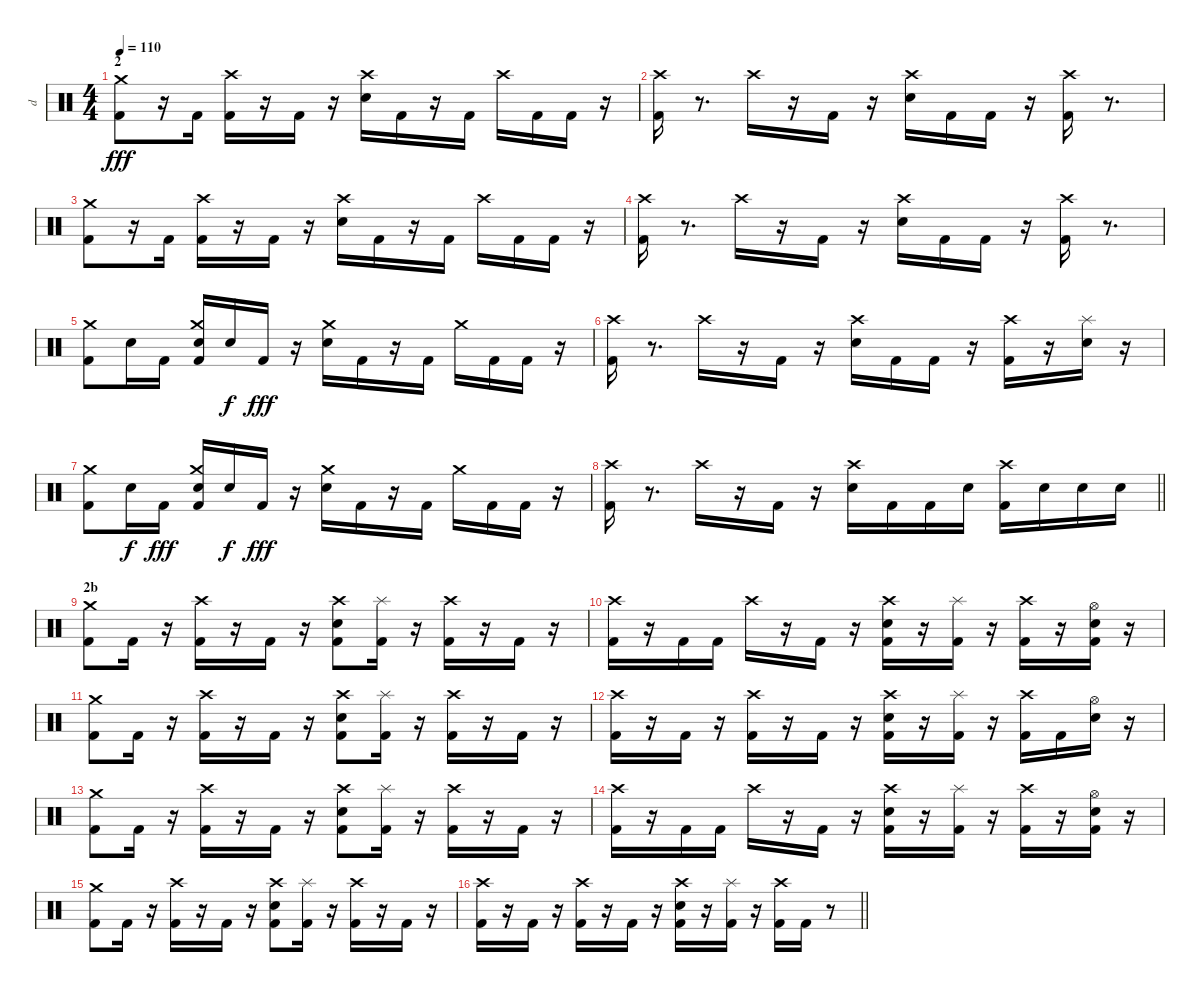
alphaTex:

\track ("d" "d") {instrument percussion}
\staff {score}
\articulation defaults
\ts (4 4)
\section ("" "2")
\tempo 110
\clef neutral
\ks c
("Kick (hit) 2" "Crash medium (hit)").8{dy fff} r.16 "Kick (hit) 2".16 ("Kick (hit) 2" "Crash high (hit)").16 r.16 "Kick (hit) 2".16 r.16 ("Electric Snare (hit)" "Crash high (hit)").16 "Kick (hit) 2".16 r.16 "Kick (hit) 2".16 "Crash high (hit)".16 "Kick (hit) 2".16 "Kick (hit) 2".16 r.16 |
("Kick (hit) 2" "Crash high (hit)").16 r.8{d} "Crash high (hit)".16 r.16 "Kick (hit) 2".16 r.16 ("Electric Snare (hit)" "Crash high (hit)").16 "Kick (hit) 2".16 "Kick (hit) 2".16 r.16 ("Kick (hit) 2" "Crash high (hit)").16 r.8{d} |
("Kick (hit) 2" "Crash medium (hit)").8 r.16 "Kick (hit) 2".16 ("Kick (hit) 2" "Crash high (hit)").16 r.16 "Kick (hit) 2".16 r.16 ("Electric Snare (hit)" "Crash high (hit)").16 "Kick (hit) 2".16 r.16 "Kick (hit) 2".16 "Crash high (hit)".16 "Kick (hit) 2".16 "Kick (hit) 2".16 r.16 |
("Kick (hit) 2" "Crash high (hit)").16 r.8{d} "Crash high (hit)".16 r.16 "Kick (hit) 2".16 r.16 ("Electric Snare (hit)" "Crash high (hit)").16 "Kick (hit) 2".16 "Kick (hit) 2".16 r.16 ("Kick (hit) 2" "Crash high (hit)").16 r.8{d} |
("Kick (hit) 2" "Crash medium (hit)").8 "Electric Snare (hit)".16 "Kick (hit) 2".16 ("Crash medium (hit)" "Kick (hit) 2" "Electric Snare (hit)").16 "Electric Snare (hit)".16{dy f} "Kick (hit) 2".16{dy fff} r.16 ("Electric Snare (hit)" "Crash medium (hit)").16 "Kick (hit) 2".16 r.16 "Kick (hit) 2".16 "Crash medium (hit)".16 "Kick (hit) 2".16 "Kick (hit) 2".16 r.16 |
("Crash high (hit)" "Kick (hit) 2").16 r.8{d} "Crash high (hit)".16 r.16 "Kick (hit) 2".16 r.16 ("Electric Snare (hit)" "Crash high (hit)").16 "Kick (hit) 2".16 "Kick (hit) 2".16 r.16 ("Kick (hit) 2" "Crash high (hit)").16 r.16 ("Electric Snare (hit)" "Splash (hit)").16 r.16 |
("Crash medium (hit)" "Kick (hit) 2").8 "Electric Snare (hit)".16{dy f} "Kick (hit) 2".16{dy fff} ("Electric Snare (hit)" "Kick (hit) 2" "Crash medium (hit)").16 "Electric Snare (hit)".16{dy f} "Kick (hit) 2".16{dy fff} r.16 ("Electric Snare (hit)" "Crash medium (hit)").16 "Kick (hit) 2".16 r.16 "Kick (hit) 2".16 "Crash medium (hit)".16 "Kick (hit) 2".16 "Kick (hit) 2".16 r.16 |
\barLineRight lightlight
("Kick (hit) 2" "Crash high (hit)").16 r.8{d} "Crash high (hit)".16 r.16 "Kick (hit) 2".16 r.16 ("Crash high (hit)" "Electric Snare (hit)").16 "Kick (hit) 2".16 "Kick (hit) 2".16 "Electric Snare (hit)".16 ("Kick (hit) 2" "Crash high (hit)").16 "Electric Snare (hit)".16 "Electric Snare (hit)".16 "Electric Snare (hit)".16 |
\section ("" "2b")
("Kick (hit) 2" "Crash medium (hit)").8 "Kick (hit) 2".16 r.16 ("Kick (hit) 2" "Crash high (hit)").16 r.16 "Kick (hit) 2".16 r.16 ("Kick (hit) 2" "Electric Snare (hit)" "Crash high (hit)").8 ("Kick (hit) 2" "Splash (hit)").16 r.16 ("Crash high (hit)" "Kick (hit) 2").16 r.16 "Kick (hit) 2".16 r.16 |
("Crash high (hit)" "Kick (hit) 2").16 r.16 "Kick (hit) 2".16 "Kick (hit) 2".16 "Crash high (hit)".16 r.16 "Kick (hit) 2".16 r.16 ("Electric Snare (hit)" "Kick (hit) 2" "Crash high (hit)").16 r.16 ("Splash (hit)" "Kick (hit) 2").16 r.16 ("Kick (hit) 2" "Crash high (hit)").16 r.16 ("Kick (hit) 2" "Electric Snare (hit)" "Hi-Hat (open)").16 r.16 |
("Kick (hit) 2" "Crash medium (hit)").8 "Kick (hit) 2".16 r.16 ("Crash high (hit)" "Kick (hit) 2").16 r.16 "Kick (hit) 2".16 r.16 ("Electric Snare (hit)" "Kick (hit) 2" "Crash high (hit)").8 ("Splash (hit)" "Kick (hit) 2").16 r.16 ("Kick (hit) 2" "Crash high (hit)").16 r.16 "Kick (hit) 2".16 r.16 |
("Kick (hit) 2" "Crash high (hit)").16 r.16 "Kick (hit) 2".16 r.16 ("Kick (hit) 2" "Crash high (hit)").16 r.16 "Kick (hit) 2".16 r.16 ("Crash high (hit)" "Kick (hit) 2" "Electric Snare (hit)").16 r.16 ("Kick (hit) 2" "Splash (hit)").16 r.16 ("Kick (hit) 2" "Crash high (hit)").16 "Kick (hit) 2".16 ("Electric Snare (hit)" "Hi-Hat (open)").16 r.16 |
("Crash medium (hit)" "Kick (hit) 2").8 "Kick (hit) 2".16 r.16 ("Crash high (hit)" "Kick (hit) 2").16 r.16 "Kick (hit) 2".16 r.16 ("Electric Snare (hit)" "Kick (hit) 2" "Crash high (hit)").8 ("Splash (hit)" "Kick (hit) 2").16 r.16 ("Kick (hit) 2" "Crash high (hit)").16 r.16 "Kick (hit) 2".16 r.16 |
("Kick (hit) 2" "Crash high (hit)").16 r.16 "Kick (hit) 2".16 "Kick (hit) 2".16 "Crash high (hit)".16 r.16 "Kick (hit) 2".16 r.16 ("Crash high (hit)" "Kick (hit) 2" "Electric Snare (hit)").16 r.16 ("Kick (hit) 2" "Splash (hit)").16 r.16 ("Crash high (hit)" "Kick (hit) 2").16 r.16 ("Hi-Hat (open)" "Kick (hit) 2" "Electric Snare (hit)").16 r.16 |
("Kick (hit) 2" "Crash medium (hit)").8 "Kick (hit) 2".16 r.16 ("Kick (hit) 2" "Crash high (hit)").16 r.16 "Kick (hit) 2".16 r.16 ("Crash high (hit)" "Kick (hit) 2" "Electric Snare (hit)").8 ("Kick (hit) 2" "Splash (hit)").16 r.16 ("Kick (hit) 2" "Crash high (hit)").16 r.16 "Kick (hit) 2".16 r.16 |
\barLineRight lightlight
("Kick (hit) 2" "Crash high (hit)").16 r.16 "Kick (hit) 2".16 r.16 ("Kick (hit) 2" "Crash high (hit)").16 r.16 "Kick (hit) 2".16 r.16 ("Kick (hit) 2" "Electric Snare (hit)" "Crash high (hit)").16 r.16 ("Kick (hit) 2" "Splash (hit)").16 r.16 ("Crash high (hit)" "Kick (hit) 2").16 "Kick (hit) 2".16 r.8
